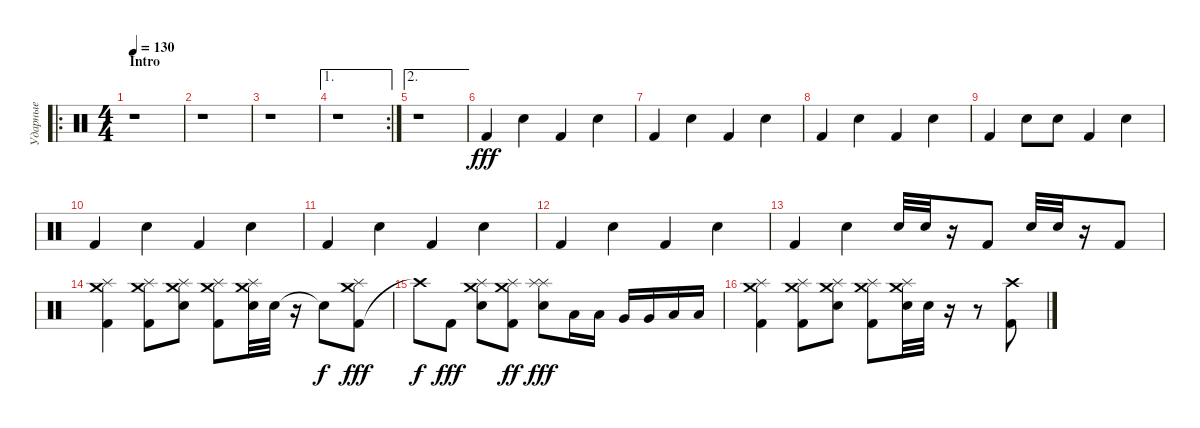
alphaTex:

\track ("Ударные" "Ударные") {instrument percussion}
\staff {score}
\articulation defaults
\ro
\ts (4 4)
\section ("" "Intro")
\tempo 130
\clef neutral
\ks c
r.1{dy fff} |
r.1 |
r.1 |
\ae 1
\rc 2
r.1 |
\ae 2
r.1 |
"Kick (hit) 2".4 "Snare (hit) 2".4 "Kick (hit) 2".4 "Snare (hit) 2".4 |
"Kick (hit) 2".4 "Snare (hit) 2".4 "Kick (hit) 2".4 "Snare (hit) 2".4 |
"Kick (hit) 2".4 "Snare (hit) 2".4 "Kick (hit) 2".4 "Snare (hit) 2".4 |
"Kick (hit) 2".4 "Snare (hit) 2".8 "Snare (hit) 2".8 "Kick (hit) 2".4 "Snare (hit) 2".4 |
"Kick (hit) 2".4 "Snare (hit) 2".4 "Kick (hit) 2".4 "Snare (hit) 2".4 |
"Kick (hit) 2".4 "Snare (hit) 2".4 "Kick (hit) 2".4 "Snare (hit) 2".4 |
"Kick (hit) 2".4 "Snare (hit) 2".4 "Kick (hit) 2".4 "Snare (hit) 2".4 |
"Kick (hit) 2".4 "Snare (hit) 2".4 "Snare (hit) 2".32 "Snare (hit) 2".32 r.16 "Kick (hit) 2".8 "Snare (hit) 2".32 "Snare (hit) 2".32 r.16 "Kick (hit) 2".8 |
("Kick (hit) 2" "Crash medium (hit)" "Splash (hit)").4 ("Kick (hit) 2" "Crash medium (hit)" "Splash (hit)").8 ("Snare (hit) 2" "Crash medium (hit)" "Splash (hit)").8 ("Kick (hit) 2" "Crash medium (hit)" "Splash (hit)").8 ("Snare (hit) 2" "Crash medium (hit)" "Splash (hit)").32 "Snare (hit) 2".32 r.16 "Snare (hit)"{t}.8{dy f} ("Kick (hit) 2" "Crash medium (hit)" "Splash (hit)").8{dy fff} |
"Crash high (hit)"{t}.8{dy f} "Kick (hit) 2".8{dy fff} ("Snare (hit) 2" "Crash medium (hit)" "Splash (hit)").8 ("Kick (hit) 2" "Crash medium (hit)" "Splash (hit)").8{dy ff} ("Snare (hit) 2" "Splash (hit)" "Splash (hit)").8{dy fff} "Low Tom (hit)".16 "Low Tom (hit)".16 "Very Low Tom (hit)".16 "Very Low Tom (hit)".16 "Low Floor Tom (hit)".16 "Low Floor Tom (hit)".16 |
("Kick (hit) 2" "Crash medium (hit)" "Splash (hit)").4 ("Kick (hit) 2" "Crash medium (hit)" "Splash (hit)").8 ("Snare (hit) 2" "Crash medium (hit)" "Splash (hit)").8 ("Kick (hit) 2" "Crash medium (hit)" "Splash (hit)").8 ("Snare (hit) 2" "Crash medium (hit)" "Splash (hit)").32 "Snare (hit) 2".32 r.16 r.8 ("Kick (hit) 2" "Crash high (hit)").8
